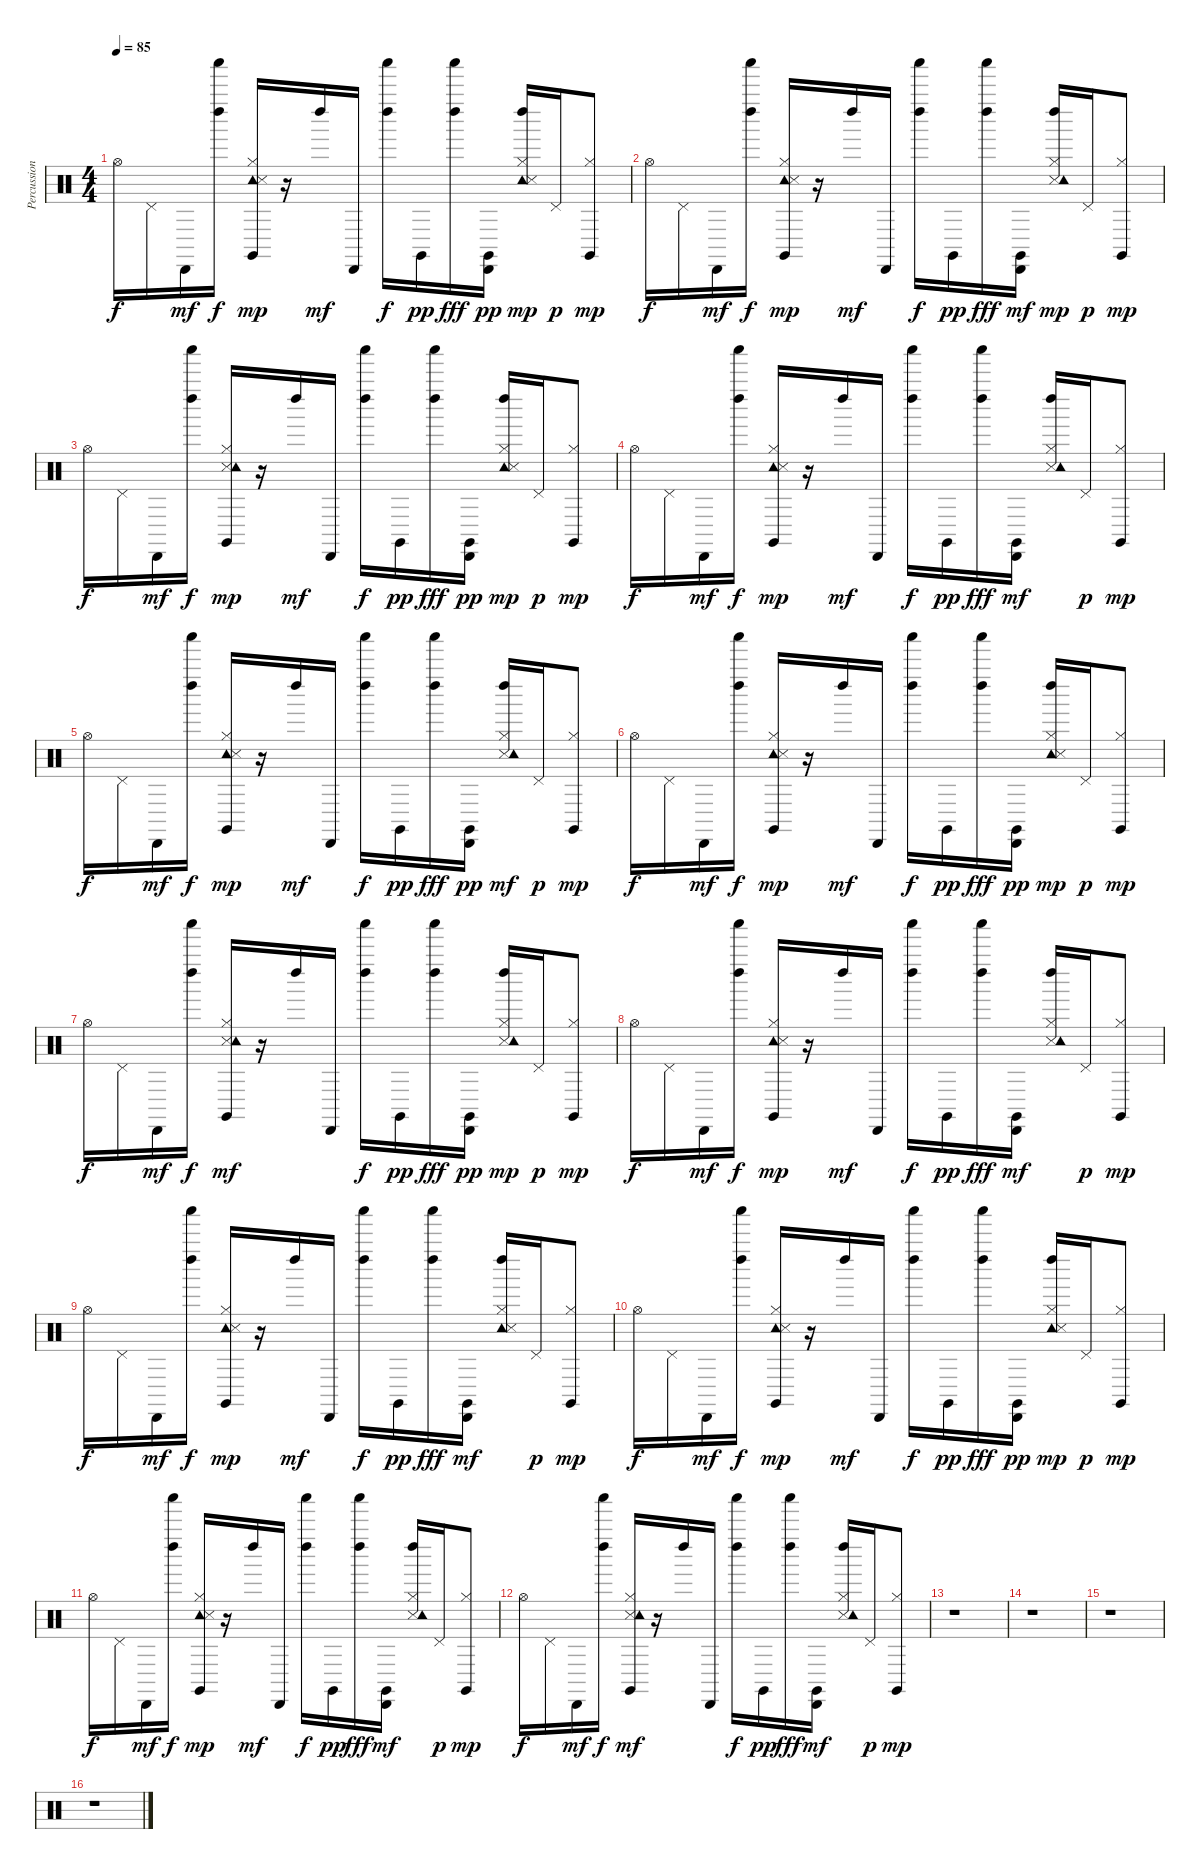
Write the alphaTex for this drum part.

\track ("Percussion" "Percussion") {instrument percussion}
\staff {score}
\articulation defaults
\ts (4 4)
\tempo 85
\clef neutral
\ks c "Hi-Hat (open)".16{dy f} "Pedal Hi-Hat (hit)".16 "Cabasa (hit)".16{dy mf}
("Shaker (hit)" "Left Maraca (hit)").16{dy f} ("Claves (hit)" "Tambourine (hit)" "Snare (side stick) 3" "Hi-Hat (closed)").16{dy mp} r.16 "Left Maraca (hit)".16{dy mf} "Cabasa (hit)".16 ("Shaker (hit)" "Left Maraca (hit)").16{dy f} "Claves (hit)".16{dy pp} ("Shaker (hit)" "Left Maraca (hit)").16{dy fff} ("Cabasa (hit)" "Claves (hit)").16{dy pp} ("Tambourine (hit)" "Hi-Hat (closed)" "Snare (side stick) 3" "Left Maraca (hit)").16{dy mp} "Pedal Hi-Hat (hit)".16{dy p} ("Claves (hit)" "Hi-Hat (closed)").8{dy mp} |
"Hi-Hat (open)".16{dy f} "Pedal Hi-Hat (hit)".16 "Cabasa (hit)".16{dy mf} ("Shaker (hit)" "Left Maraca (hit)").16{dy f} ("Hi-Hat (closed)" "Tambourine (hit)" "Claves (hit)" "Snare (side stick) 3").16{dy mp} r.16 "Left Maraca (hit)".16{dy mf} "Cabasa (hit)".16 ("Shaker (hit)" "Left Maraca (hit)").16{dy f} "Claves (hit)".16{dy pp} ("Left Maraca (hit)" "Shaker (hit)").16{dy fff} ("Claves (hit)" "Cabasa (hit)").16{dy mf} ("Hi-Hat (closed)" "Snare (side stick) 3" "Tambourine (hit)" "Left Maraca (hit)").16{dy mp} "Pedal Hi-Hat (hit)".16{dy p} ("Claves (hit)" "Hi-Hat (closed)").8{dy mp} |
"Hi-Hat (open)".16{dy f} "Pedal Hi-Hat (hit)".16 "Cabasa (hit)".16{dy mf} ("Left Maraca (hit)" "Shaker (hit)").16{dy f} ("Snare (side stick) 3" "Hi-Hat (closed)" "Tambourine (hit)" "Claves (hit)").16{dy mp} r.16 "Left Maraca (hit)".16{dy mf} "Cabasa (hit)".16 ("Left Maraca (hit)" "Shaker (hit)").16{dy f} "Claves (hit)".16{dy pp} ("Shaker (hit)" "Left Maraca (hit)").16{dy fff} ("Cabasa (hit)" "Claves (hit)").16{dy pp} ("Hi-Hat (closed)" "Tambourine (hit)" "Left Maraca (hit)" "Snare (side stick) 3").16{dy mp} "Pedal Hi-Hat (hit)".16{dy p} ("Claves (hit)" "Hi-Hat (closed)").8{dy mp} |
"Hi-Hat (open)".16{dy f} "Pedal Hi-Hat (hit)".16 "Cabasa (hit)".16{dy mf} ("Left Maraca (hit)" "Shaker (hit)").16{dy f} ("Tambourine (hit)" "Hi-Hat (closed)" "Claves (hit)" "Snare (side stick) 3").16{dy mp} r.16 "Left Maraca (hit)".16{dy mf} "Cabasa (hit)".16 ("Shaker (hit)" "Left Maraca (hit)").16{dy f} "Claves (hit)".16{dy pp} ("Left Maraca (hit)" "Shaker (hit)").16{dy fff} ("Claves (hit)" "Cabasa (hit)").16{dy mf} ("Snare (side stick) 3" "Left Maraca (hit)" "Hi-Hat (closed)" "Tambourine (hit)").16 "Pedal Hi-Hat (hit)".16{dy p} ("Claves (hit)" "Hi-Hat (closed)").8{dy mp} |
"Hi-Hat (open)".16{dy f} "Pedal Hi-Hat (hit)".16 "Cabasa (hit)".16{dy mf} ("Shaker (hit)" "Left Maraca (hit)").16{dy f} ("Claves (hit)" "Tambourine (hit)" "Hi-Hat (closed)" "Snare (side stick) 3").16{dy mp} r.16 "Left Maraca (hit)".16{dy mf} "Cabasa (hit)".16 ("Left Maraca (hit)" "Shaker (hit)").16{dy f} "Claves (hit)".16{dy pp} ("Left Maraca (hit)" "Shaker (hit)").16{dy fff} ("Cabasa (hit)" "Claves (hit)").16{dy pp} ("Snare (side stick) 3" "Left Maraca (hit)" "Hi-Hat (closed)" "Tambourine (hit)").16{dy mf} "Pedal Hi-Hat (hit)".16{dy p} ("Hi-Hat (closed)" "Claves (hit)").8{dy mp} |
"Hi-Hat (open)".16{dy f} "Pedal Hi-Hat (hit)".16 "Cabasa (hit)".16{dy mf} ("Left Maraca (hit)" "Shaker (hit)").16{dy f} ("Hi-Hat (closed)" "Tambourine (hit)" "Claves (hit)" "Snare (side stick) 3").16{dy mp} r.16 "Left Maraca (hit)".16{dy mf} "Cabasa (hit)".16 ("Left Maraca (hit)" "Shaker (hit)").16{dy f} "Claves (hit)".16{dy pp} ("Left Maraca (hit)" "Shaker (hit)").16{dy fff} ("Cabasa (hit)" "Claves (hit)").16{dy pp} ("Tambourine (hit)" "Hi-Hat (closed)" "Left Maraca (hit)" "Snare (side stick) 3").16{dy mp} "Pedal Hi-Hat (hit)".16{dy p} ("Hi-Hat (closed)" "Claves (hit)").8{dy mp} |
"Hi-Hat (open)".16{dy f} "Pedal Hi-Hat (hit)".16 "Cabasa (hit)".16{dy mf} ("Left Maraca (hit)" "Shaker (hit)").16{dy f} ("Hi-Hat (closed)" "Claves (hit)" "Snare (side stick) 3" "Tambourine (hit)").16{dy mf} r.16 "Left Maraca (hit)".16 "Cabasa (hit)".16 ("Shaker (hit)" "Left Maraca (hit)").16{dy f} "Claves (hit)".16{dy pp} ("Shaker (hit)" "Left Maraca (hit)").16{dy fff} ("Cabasa (hit)" "Claves (hit)").16{dy pp} ("Snare (side stick) 3" "Left Maraca (hit)" "Tambourine (hit)" "Hi-Hat (closed)").16{dy mp} "Pedal Hi-Hat (hit)".16{dy p} ("Hi-Hat (closed)" "Claves (hit)").8{dy mp} |
"Hi-Hat (open)".16{dy f} "Pedal Hi-Hat (hit)".16 "Cabasa (hit)".16{dy mf} ("Left Maraca (hit)" "Shaker (hit)").16{dy f} ("Tambourine (hit)" "Hi-Hat (closed)" "Snare (side stick) 3" "Claves (hit)").16{dy mp} r.16 "Left Maraca (hit)".16{dy mf} "Cabasa (hit)".16 ("Left Maraca (hit)" "Shaker (hit)").16{dy f} "Claves (hit)".16{dy pp} ("Left Maraca (hit)" "Shaker (hit)").16{dy fff} ("Claves (hit)" "Cabasa (hit)").16{dy mf} ("Snare (side stick) 3" "Left Maraca (hit)" "Hi-Hat (closed)" "Tambourine (hit)").16 "Pedal Hi-Hat (hit)".16{dy p} ("Hi-Hat (closed)" "Claves (hit)").8{dy mp} |
"Hi-Hat (open)".16{dy f} "Pedal Hi-Hat (hit)".16 "Cabasa (hit)".16{dy mf} ("Shaker (hit)" "Left Maraca (hit)").16{dy f} ("Tambourine (hit)" "Hi-Hat (closed)" "Snare (side stick) 3" "Claves (hit)").16{dy mp} r.16 "Left Maraca (hit)".16{dy mf} "Cabasa (hit)".16 ("Shaker (hit)" "Left Maraca (hit)").16{dy f} "Claves (hit)".16{dy pp} ("Shaker (hit)" "Left Maraca (hit)").16{dy fff} ("Claves (hit)" "Cabasa (hit)").16{dy mf} ("Left Maraca (hit)" "Hi-Hat (closed)" "Tambourine (hit)" "Snare (side stick) 3").16 "Pedal Hi-Hat (hit)".16{dy p} ("Claves (hit)" "Hi-Hat (closed)").8{dy mp} |
"Hi-Hat (open)".16{dy f} "Pedal Hi-Hat (hit)".16 "Cabasa (hit)".16{dy mf} ("Shaker (hit)" "Left Maraca (hit)").16{dy f} ("Hi-Hat (closed)" "Tambourine (hit)" "Snare (side stick) 3" "Claves (hit)").16{dy mp} r.16 "Left Maraca (hit)".16{dy mf} "Cabasa (hit)".16 ("Shaker (hit)" "Left Maraca (hit)").16{dy f} "Claves (hit)".16{dy pp} ("Shaker (hit)" "Left Maraca (hit)").16{dy fff} ("Cabasa (hit)" "Claves (hit)").16{dy pp} ("Tambourine (hit)" "Left Maraca (hit)" "Hi-Hat (closed)" "Snare (side stick) 3").16{dy mp} "Pedal Hi-Hat (hit)".16{dy p} ("Hi-Hat (closed)" "Claves (hit)").8{dy mp} |
"Hi-Hat (open)".16{dy f} "Pedal Hi-Hat (hit)".16 "Cabasa (hit)".16{dy mf} ("Left Maraca (hit)" "Shaker (hit)").16{dy f} ("Claves (hit)" "Tambourine (hit)" "Snare (side stick) 3" "Hi-Hat (closed)").16{dy mp} r.16 "Left Maraca (hit)".16{dy mf} "Cabasa (hit)".16 ("Shaker (hit)" "Left Maraca (hit)").16{dy f} "Claves (hit)".16{dy pp} ("Shaker (hit)" "Left Maraca (hit)").16{dy fff} ("Claves (hit)" "Cabasa (hit)").16{dy mf} ("Left Maraca (hit)" "Snare (side stick) 3" "Hi-Hat (closed)" "Tambourine (hit)").16 "Pedal Hi-Hat (hit)".16{dy p} ("Claves (hit)" "Hi-Hat (closed)").8{dy mp} |
"Hi-Hat (open)".16{dy f} "Pedal Hi-Hat (hit)".16 "Cabasa (hit)".16{dy mf} ("Left Maraca (hit)" "Shaker (hit)").16{dy f} ("Snare (side stick) 3" "Claves (hit)" "Hi-Hat (closed)" "Tambourine (hit)").16{dy mf} r.16 "Left Maraca (hit)".16 "Cabasa (hit)".16 ("Shaker (hit)" "Left Maraca (hit)").16{dy f} "Claves (hit)".16{dy pp} ("Left Maraca (hit)" "Shaker (hit)").16{dy fff} ("Claves (hit)" "Cabasa (hit)").16{dy mf} ("Hi-Hat (closed)" "Left Maraca (hit)" "Snare (side stick) 3" "Tambourine (hit)").16 "Pedal Hi-Hat (hit)".16{dy p} ("Hi-Hat (closed)" "Claves (hit)").8{dy mp} |
r.1 |
r.1 |
r.1 |
r.1
